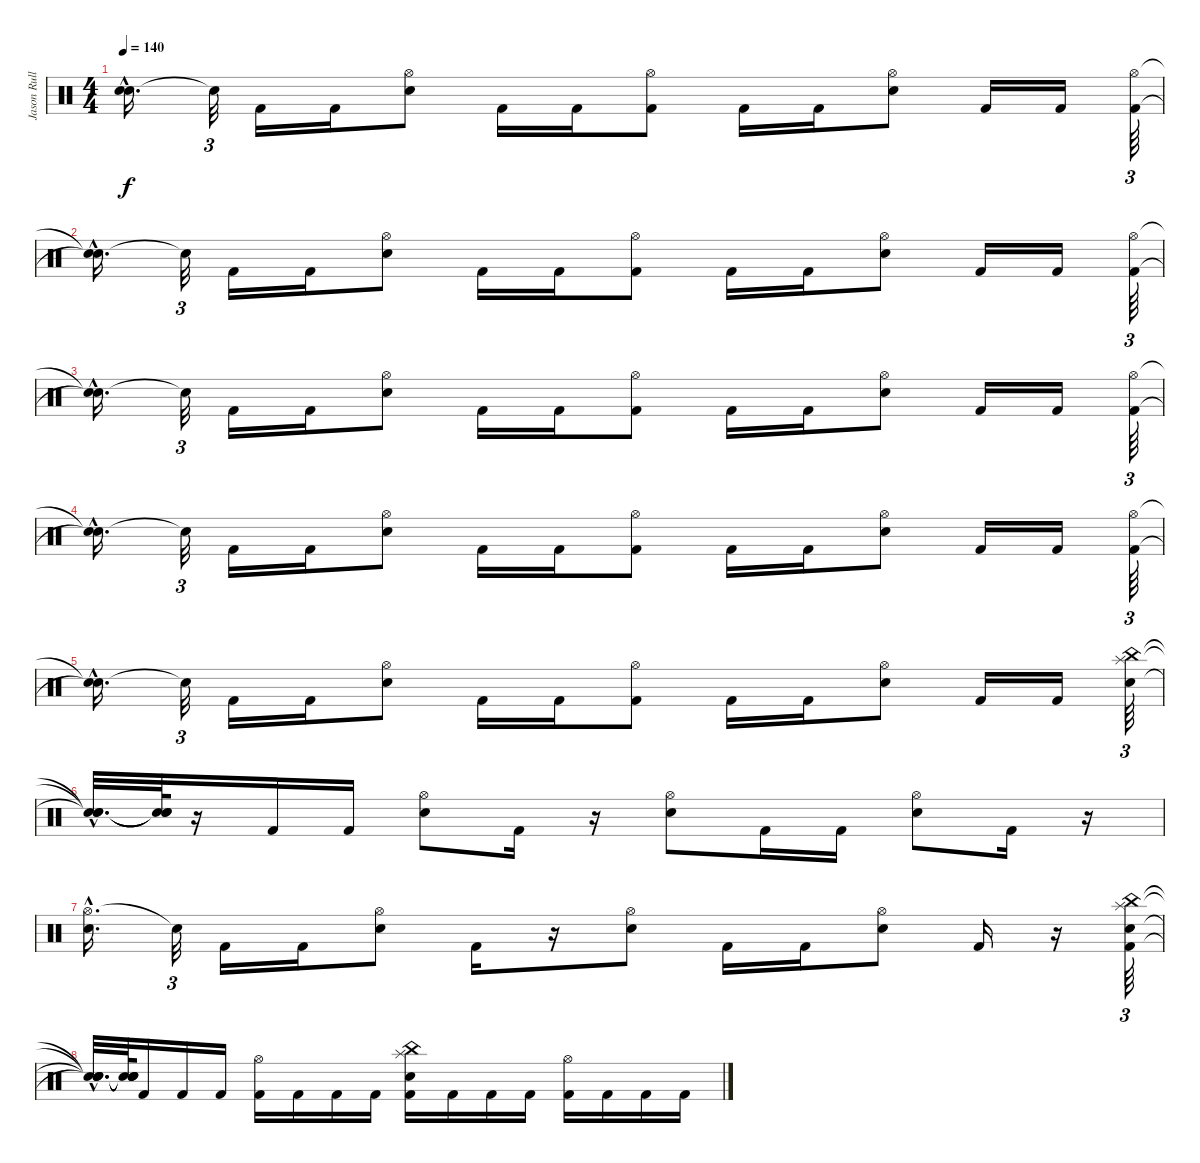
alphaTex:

\track ("Jason Rullo" "Jason Rull") {instrument percussion}
\staff {score}
\articulation defaults
\ts (4 4)
\tempo 140
\clef neutral
\ks c
("Snare (hit)"{hac t} "Snare (hit)"{hac t}).16{d dy f} "Snare (hit)"{t}.32{tu (3 2)} "Kick (hit) 2".16 "Kick (hit) 2".16 ("Hi-Hat (open)" "Electric Snare (hit)").8 "Kick (hit) 2".16 "Kick (hit) 2".16 ("Hi-Hat (open)" "Kick (hit) 2").8 "Kick (hit) 2".16 "Kick (hit) 2".16 ("Hi-Hat (open)" "Electric Snare (hit)").8 "Kick (hit) 2".16 "Kick (hit) 2".16 ("Hi-Hat (open)" "Kick (hit) 2").64{tu (3 2)} |
("Snare (hit)"{hac t} "Snare (hit)"{hac t}).16{d} "Snare (hit)"{t}.32{tu (3 2)} "Kick (hit) 2".16 "Kick (hit) 2".16 ("Hi-Hat (open)" "Electric Snare (hit)").8 "Kick (hit) 2".16 "Kick (hit) 2".16 ("Hi-Hat (open)" "Kick (hit) 2").8 "Kick (hit) 2".16 "Kick (hit) 2".16 ("Hi-Hat (open)" "Electric Snare (hit)").8 "Kick (hit) 2".16 "Kick (hit) 2".16 ("Hi-Hat (open)" "Kick (hit) 2").64{tu (3 2)} |
("Snare (hit)"{hac t} "Snare (hit)"{hac t}).16{d} "Snare (hit)"{t}.32{tu (3 2)} "Kick (hit) 2".16 "Kick (hit) 2".16 ("Hi-Hat (open)" "Electric Snare (hit)").8 "Kick (hit) 2".16 "Kick (hit) 2".16 ("Hi-Hat (open)" "Kick (hit) 2").8 "Kick (hit) 2".16 "Kick (hit) 2".16 ("Hi-Hat (open)" "Electric Snare (hit)").8 "Kick (hit) 2".16 "Kick (hit) 2".16 ("Hi-Hat (open)" "Kick (hit) 2").64{tu (3 2)} |
("Snare (hit)"{hac t} "Snare (hit)"{hac t}).16{d} "Snare (hit)"{t}.32{tu (3 2)} "Kick (hit) 2".16 "Kick (hit) 2".16 ("Hi-Hat (open)" "Electric Snare (hit)").8 "Kick (hit) 2".16 "Kick (hit) 2".16 ("Hi-Hat (open)" "Kick (hit) 2").8 "Kick (hit) 2".16 "Kick (hit) 2".16 ("Hi-Hat (open)" "Electric Snare (hit)").8 "Kick (hit) 2".16 "Kick (hit) 2".16 ("Hi-Hat (open)" "Kick (hit) 2").64{tu (3 2)} |
("Snare (hit)"{hac t} "Snare (hit)"{hac t}).16{d} "Snare (hit)"{t}.32{tu (3 2)} "Kick (hit) 2".16 "Kick (hit) 2".16 ("Hi-Hat (open)" "Electric Snare (hit)").8 "Kick (hit) 2".16 "Kick (hit) 2".16 ("Hi-Hat (open)" "Kick (hit) 2").8 "Kick (hit) 2".16 "Kick (hit) 2".16 ("Hi-Hat (open)" "Electric Snare (hit)").8 "Kick (hit) 2".16 "Kick (hit) 2".16 ("Splash (hit)" "China (hit)" "Electric Snare (hit)").64{tu (3 2)} |
("Snare (hit)"{hac t} "Snare (hit)"{hac t} "Snare (hit)"{hac t}).32{d} ("Snare (hit)"{t} "Snare (hit)"{t} "Snare (hit)"{t}).64 r.16 "Kick (hit) 2".16 "Kick (hit) 2".16 ("Hi-Hat (open)" "Electric Snare (hit)").8 "Kick (hit) 2".16 r.16 ("Hi-Hat (open)" "Electric Snare (hit)").8 "Kick (hit) 2".16 "Kick (hit) 2".16 ("Hi-Hat (open)" "Electric Snare (hit)").8 "Kick (hit) 2".16 r.16 |
("Hi-Hat (open)"{hac} "Electric Snare (hit)"{hac}).16{d} "Snare (hit)"{t}.32{tu (3 2)} "Kick (hit) 2".16 "Kick (hit) 2".16 ("Hi-Hat (open)" "Electric Snare (hit)").8 "Kick (hit) 2".16 r.16 ("Hi-Hat (open)" "Electric Snare (hit)").8 "Kick (hit) 2".16 "Kick (hit) 2".16 ("Hi-Hat (open)" "Electric Snare (hit)").8 "Kick (hit) 2".16 r.16 ("Kick (hit) 2" "China (hit)" "Splash (hit)" "Electric Snare (hit)").64{tu (3 2)} |
("Snare (hit)"{hac t} "Snare (hit)"{hac t} "Snare (hit)"{hac t} "Snare (hit)"{hac t}).32{d} ("Snare (hit)"{t} "Snare (hit)"{t} "Snare (hit)"{t} "Snare (hit)"{t}).64 "Kick (hit) 2".16 "Kick (hit) 2".16 "Kick (hit) 2".16 ("Kick (hit) 2" "Hi-Hat (open)").16 "Kick (hit) 2".16 "Kick (hit) 2".16 "Kick (hit) 2".16 ("Kick (hit) 2" "China (hit)" "Splash (hit)" "Electric Snare (hit)").16 "Kick (hit) 2".16 "Kick (hit) 2".16 "Kick (hit) 2".16 ("Kick (hit) 2" "Hi-Hat (open)").16 "Kick (hit) 2".16 "Kick (hit) 2".16 "Kick (hit) 2".16
